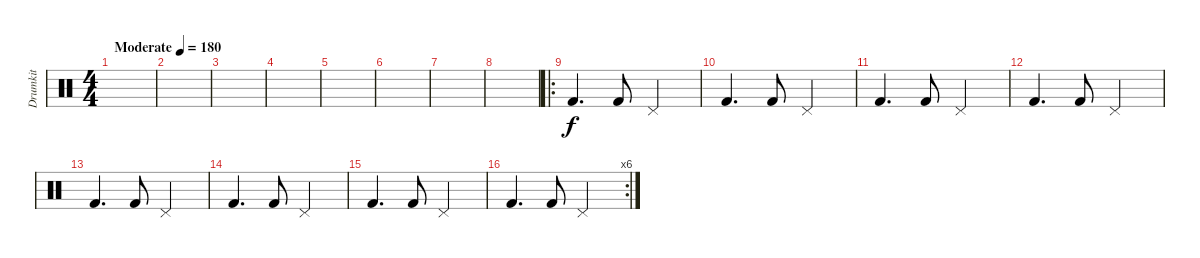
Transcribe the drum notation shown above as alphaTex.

\track ("Drumkit" "Drumkit") {instrument percussion}
\staff {score}
\articulation defaults
\ts (4 4)
\tempo (180 "Moderate")
\clef neutral
\ks c
|
|
|
|
|
|
|
|
\ro "Kick (hit) 2".4{d} "Kick (hit) 2".8 "Pedal Hi-Hat (hit)".2
|
"Kick (hit) 2".4{d} "Kick (hit) 2".8 "Pedal Hi-Hat (hit)".2 |
"Kick (hit) 2".4{d} "Kick (hit) 2".8 "Pedal Hi-Hat (hit)".2 |
"Kick (hit) 2".4{d} "Kick (hit) 2".8 "Pedal Hi-Hat (hit)".2 |
"Kick (hit) 2".4{d} "Kick (hit) 2".8 "Pedal Hi-Hat (hit)".2 |
"Kick (hit) 2".4{d} "Kick (hit) 2".8 "Pedal Hi-Hat (hit)".2 |
"Kick (hit) 2".4{d} "Kick (hit) 2".8 "Pedal Hi-Hat (hit)".2 |
\rc 6 "Kick (hit) 2".4{d} "Kick (hit) 2".8 "Pedal Hi-Hat (hit)".2
